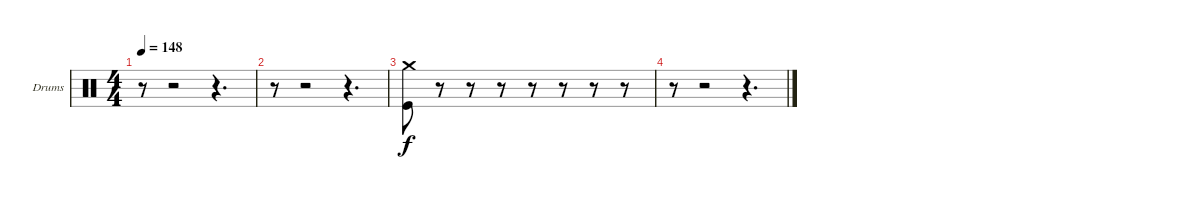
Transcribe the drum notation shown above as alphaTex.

\defaultSystemsLayout 4
\bracketExtendMode groupsimilarinstruments
\firstSystemTrackNameOrientation horizontal
\otherSystemsTrackNameOrientation horizontal
\track ("Drumkit" "Drums") {instrument percussion}
\staff {score}
\articulation defaults
\ts (4 4)
\tempo 148
\clef neutral
\scale
0.333333
\ks c
r.8{dy mp} r.2 r.4{d} |
\scale
0.333333 r.8 r.2 r.4{d} |
("Crash medium (hit)" "Kick (hit)").8{dy f} r.8 r.8 r.8 r.8 r.8 r.8 r.8 |
r.8 r.2 r.4{d}
